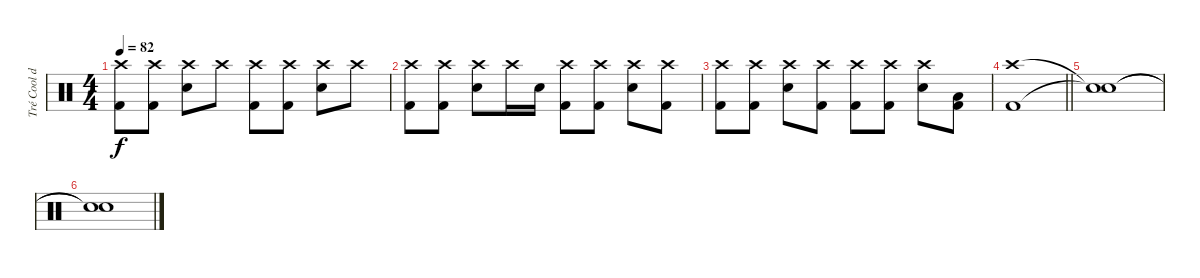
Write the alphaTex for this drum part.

\track ("Tré Cool drums" "Tré Cool d") {instrument percussion}
\staff {score}
\articulation defaults
\ts (4 4)
\tempo 82
\clef neutral
\ks c
("Crash high (hit)" "Kick (hit) 2").8{dy f} ("Crash high (hit)" "Kick (hit) 2").8 ("Crash high (hit)" "Snare (hit) 2").8 "Crash high (hit)".8 ("Crash high (hit)" "Kick (hit) 2").8 ("Crash high (hit)" "Kick (hit) 2").8 ("Crash high (hit)" "Snare (hit) 2").8 "Crash high (hit)".8 |
("Crash high (hit)" "Kick (hit) 2").8 ("Crash high (hit)" "Kick (hit) 2").8 ("Crash high (hit)" "Snare (hit) 2").8 "Crash high (hit)".16 "Snare (hit) 2".16 ("Crash high (hit)" "Kick (hit) 2").8 ("Crash high (hit)" "Kick (hit) 2").8 ("Crash high (hit)" "Snare (hit) 2").8 ("Crash high (hit)" "Kick (hit) 2").8 |
("Crash high (hit)" "Kick (hit) 2").8 ("Crash high (hit)" "Kick (hit) 2").8 ("Crash high (hit)" "Snare (hit) 2").8 ("Crash high (hit)" "Kick (hit) 2").8 ("Crash high (hit)" "Kick (hit) 2").8 ("Crash high (hit)" "Kick (hit) 2").8 ("Crash high (hit)" "Snare (hit) 2").8 ("Low Floor Tom (hit)" "Kick (hit) 2").8 |
\barLineRight lightlight
("Crash high (hit)" "Kick (hit) 2").1 |
("Snare (hit)"{t} "Snare (hit)"{t}).1 |
("Snare (hit)"{t} "Snare (hit)"{t}).1
